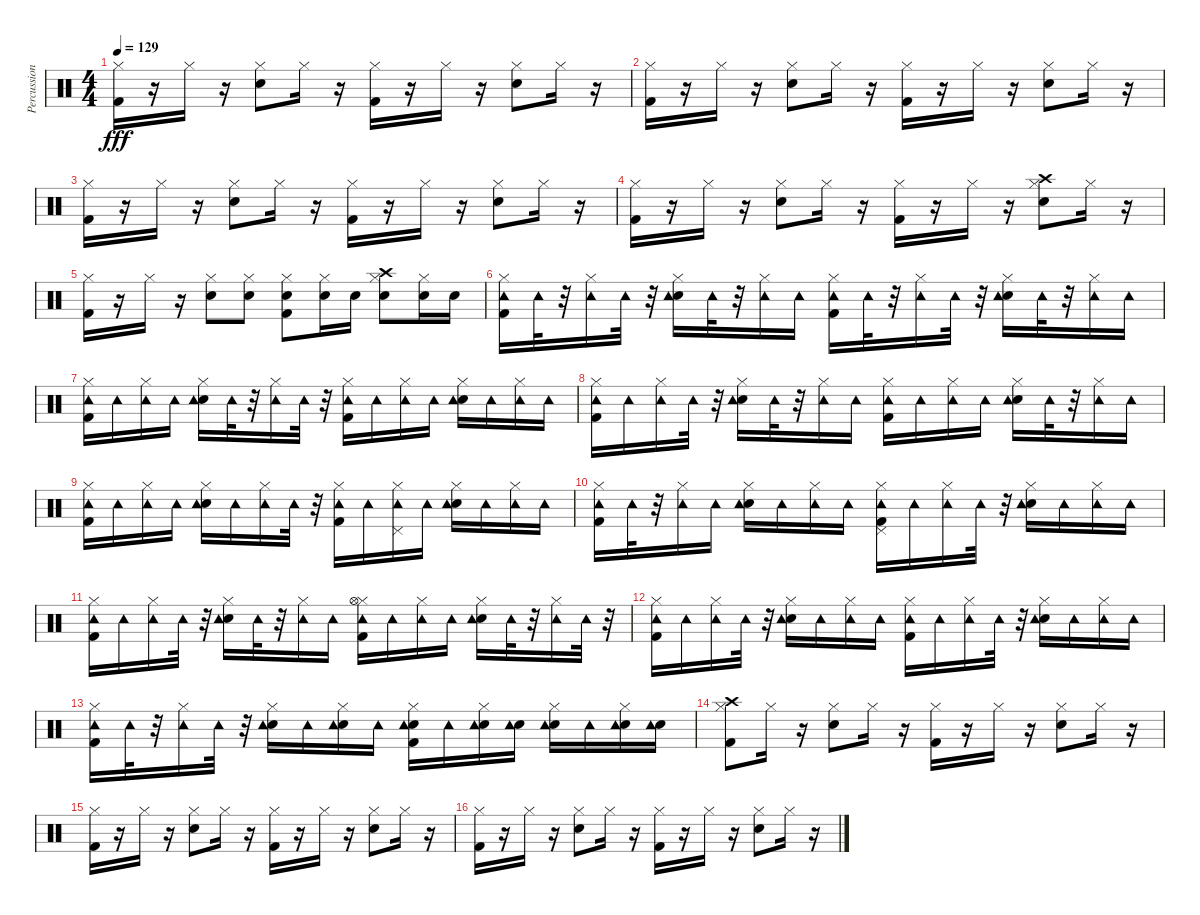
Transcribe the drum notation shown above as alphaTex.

\track ("Percussion" "Percussion") {instrument percussion}
\staff {score}
\articulation defaults
\ts (4 4)
\tempo 129
\clef neutral
\ks c
("Kick (hit) 2" "Hi-Hat (closed)").16{dy fff} r.16 "Hi-Hat (closed)".16 r.16 ("Snare (hit) 2" "Hi-Hat (closed)").8 "Hi-Hat (closed)".16 r.16 ("Kick (hit) 2" "Hi-Hat (closed)").16 r.16 "Hi-Hat (closed)".16 r.16 ("Snare (hit) 2" "Hi-Hat (closed)").8 "Hi-Hat (closed)".16 r.16 |
("Kick (hit) 2" "Hi-Hat (closed)").16 r.16 "Hi-Hat (closed)".16 r.16 ("Snare (hit) 2" "Hi-Hat (closed)").8 "Hi-Hat (closed)".16 r.16 ("Kick (hit) 2" "Hi-Hat (closed)").16 r.16 "Hi-Hat (closed)".16 r.16 ("Snare (hit) 2" "Hi-Hat (closed)").8 "Hi-Hat (closed)".16 r.16 |
("Kick (hit) 2" "Hi-Hat (closed)").16 r.16 "Hi-Hat (closed)".16 r.16 ("Snare (hit) 2" "Hi-Hat (closed)").8 "Hi-Hat (closed)".16 r.16 ("Kick (hit) 2" "Hi-Hat (closed)").16 r.16 "Hi-Hat (closed)".16 r.16 ("Snare (hit) 2" "Hi-Hat (closed)").8 "Hi-Hat (closed)".16 r.16 |
("Kick (hit) 2" "Hi-Hat (closed)").16 r.16 "Hi-Hat (closed)".16 r.16 ("Snare (hit) 2" "Hi-Hat (closed)").8 "Hi-Hat (closed)".16 r.16 ("Kick (hit) 2" "Hi-Hat (closed)").16 r.16 "Hi-Hat (closed)".16 r.16 ("Snare (hit) 2" "Hi-Hat (closed)" "Crash high (hit)").8 "Hi-Hat (closed)".16 r.16 |
("Kick (hit) 2" "Hi-Hat (closed)").16 r.16 "Hi-Hat (closed)".16 r.16 ("Snare (hit) 2" "Hi-Hat (closed)").8 ("Snare (hit) 2" "Hi-Hat (closed)").8 ("Kick (hit) 2" "Snare (hit) 2" "Hi-Hat (closed)").8 ("Snare (hit) 2" "Hi-Hat (closed)").16 "Snare (hit) 2".16 ("Snare (hit) 2" "Hi-Hat (closed)" "Crash high (hit)").8 ("Snare (hit) 2" "Hi-Hat (closed)").16 "Snare (hit) 2".16 |
("Kick (hit) 2" "Tambourine (hit)" "Hi-Hat (closed)").16 "Tambourine (hit)".32 r.32 ("Tambourine (hit)" "Hi-Hat (closed)").16 "Tambourine (hit)".32 r.32 ("Snare (hit) 2" "Tambourine (hit)" "Hi-Hat (closed)").16 "Tambourine (hit)".32 r.32 ("Tambourine (hit)" "Hi-Hat (closed)").16 "Tambourine (hit)".16 ("Kick (hit) 2" "Tambourine (hit)" "Hi-Hat (closed)").16 "Tambourine (hit)".32 r.32 ("Tambourine (hit)" "Hi-Hat (closed)").16 "Tambourine (hit)".32 r.32 ("Snare (hit) 2" "Tambourine (hit)" "Hi-Hat (closed)").16 "Tambourine (hit)".32 r.32 ("Tambourine (hit)" "Hi-Hat (closed)").16 "Tambourine (hit)".16 |
("Kick (hit) 2" "Tambourine (hit)" "Hi-Hat (closed)").16 "Tambourine (hit)".16 ("Tambourine (hit)" "Hi-Hat (closed)").16 "Tambourine (hit)".16 ("Snare (hit) 2" "Tambourine (hit)" "Hi-Hat (closed)").16 "Tambourine (hit)".32 r.32 ("Tambourine (hit)" "Hi-Hat (closed)").16 "Tambourine (hit)".32 r.32 ("Kick (hit) 2" "Tambourine (hit)" "Hi-Hat (closed)").16 "Tambourine (hit)".16 ("Tambourine (hit)" "Hi-Hat (closed)").16 "Tambourine (hit)".16 ("Snare (hit) 2" "Tambourine (hit)" "Hi-Hat (closed)").16 "Tambourine (hit)".16 ("Tambourine (hit)" "Hi-Hat (closed)").16 "Tambourine (hit)".16 |
("Kick (hit) 2" "Tambourine (hit)" "Hi-Hat (closed)").16 "Tambourine (hit)".16 ("Tambourine (hit)" "Hi-Hat (closed)").16 "Tambourine (hit)".32 r.32 ("Snare (hit) 2" "Tambourine (hit)" "Hi-Hat (closed)").16 "Tambourine (hit)".32 r.32 ("Tambourine (hit)" "Hi-Hat (closed)").16 "Tambourine (hit)".16 ("Kick (hit) 2" "Tambourine (hit)" "Hi-Hat (closed)").16 "Tambourine (hit)".16 ("Tambourine (hit)" "Hi-Hat (closed)").16 "Tambourine (hit)".16 ("Snare (hit) 2" "Tambourine (hit)" "Hi-Hat (closed)").16 "Tambourine (hit)".32 r.32 ("Tambourine (hit)" "Hi-Hat (closed)").16 "Tambourine (hit)".16 |
("Kick (hit) 2" "Tambourine (hit)" "Hi-Hat (closed)").16 "Tambourine (hit)".16 ("Tambourine (hit)" "Hi-Hat (closed)").16 "Tambourine (hit)".16 ("Snare (hit) 2" "Tambourine (hit)" "Hi-Hat (closed)").16 "Tambourine (hit)".16 ("Tambourine (hit)" "Hi-Hat (closed)").16 "Tambourine (hit)".32 r.32 ("Kick (hit) 2" "Tambourine (hit)" "Hi-Hat (closed)").16 "Tambourine (hit)".16 ("Tambourine (hit)" "Hi-Hat (closed)" "Pedal Hi-Hat (hit)").16 "Tambourine (hit)".16 ("Snare (hit) 2" "Tambourine (hit)" "Hi-Hat (closed)").16 "Tambourine (hit)".16 ("Tambourine (hit)" "Hi-Hat (closed)").16 "Tambourine (hit)".16 |
("Kick (hit) 2" "Tambourine (hit)" "Hi-Hat (closed)").16 "Tambourine (hit)".32 r.32 ("Tambourine (hit)" "Hi-Hat (closed)").16 "Tambourine (hit)".16 ("Snare (hit) 2" "Tambourine (hit)" "Hi-Hat (closed)").16 "Tambourine (hit)".16 ("Tambourine (hit)" "Hi-Hat (closed)").16 "Tambourine (hit)".16 ("Kick (hit) 2" "Tambourine (hit)" "Hi-Hat (closed)" "Pedal Hi-Hat (hit)").16 "Tambourine (hit)".16 ("Tambourine (hit)" "Hi-Hat (closed)").16 "Tambourine (hit)".32 r.32 ("Snare (hit) 2" "Tambourine (hit)" "Hi-Hat (closed)").16 "Tambourine (hit)".16 ("Tambourine (hit)" "Hi-Hat (closed)").16 "Tambourine (hit)".16 |
("Kick (hit) 2" "Tambourine (hit)" "Hi-Hat (closed)").16 "Tambourine (hit)".16 ("Tambourine (hit)" "Hi-Hat (closed)").16 "Tambourine (hit)".32 r.32 ("Snare (hit) 2" "Tambourine (hit)" "Hi-Hat (closed)").16 "Tambourine (hit)".32 r.32 ("Tambourine (hit)" "Hi-Hat (closed)").16 "Tambourine (hit)".16 ("Kick (hit) 2" "Tambourine (hit)" "Hi-Hat (closed)" "Hi-Hat (open)").16 "Tambourine (hit)".16 ("Tambourine (hit)" "Hi-Hat (closed)").16 "Tambourine (hit)".16 ("Snare (hit) 2" "Tambourine (hit)" "Hi-Hat (closed)").16 "Tambourine (hit)".32 r.32 ("Tambourine (hit)" "Hi-Hat (closed)").16 "Tambourine (hit)".32 r.32 |
("Kick (hit) 2" "Tambourine (hit)" "Hi-Hat (closed)").16 "Tambourine (hit)".16 ("Tambourine (hit)" "Hi-Hat (closed)").16 "Tambourine (hit)".32 r.32 ("Snare (hit) 2" "Tambourine (hit)" "Hi-Hat (closed)").16 "Tambourine (hit)".16 ("Tambourine (hit)" "Hi-Hat (closed)").16 "Tambourine (hit)".16 ("Kick (hit) 2" "Tambourine (hit)" "Hi-Hat (closed)").16 "Tambourine (hit)".16 ("Tambourine (hit)" "Hi-Hat (closed)").16 "Tambourine (hit)".32 r.32 ("Snare (hit) 2" "Tambourine (hit)" "Hi-Hat (closed)").16 "Tambourine (hit)".16 ("Tambourine (hit)" "Hi-Hat (closed)").16 "Tambourine (hit)".16 |
("Kick (hit) 2" "Tambourine (hit)" "Hi-Hat (closed)").16 "Tambourine (hit)".32 r.32 ("Tambourine (hit)" "Hi-Hat (closed)").16 "Tambourine (hit)".32 r.32 ("Snare (hit) 2" "Tambourine (hit)" "Hi-Hat (closed)").16 "Tambourine (hit)".16 ("Snare (hit) 2" "Tambourine (hit)" "Hi-Hat (closed)").16 "Tambourine (hit)".16 ("Kick (hit) 2" "Snare (hit) 2" "Tambourine (hit)" "Hi-Hat (closed)").16 "Tambourine (hit)".16 ("Snare (hit) 2" "Tambourine (hit)" "Hi-Hat (closed)").16 ("Snare (hit) 2" "Tambourine (hit)").16 ("Snare (hit) 2" "Tambourine (hit)" "Hi-Hat (closed)").16 "Tambourine (hit)".16 ("Snare (hit) 2" "Tambourine (hit)" "Hi-Hat (closed)").16 ("Snare (hit) 2" "Tambourine (hit)").16 |
("Kick (hit) 2" "Hi-Hat (closed)" "Crash high (hit)").8 "Hi-Hat (closed)".16 r.16 ("Snare (hit) 2" "Hi-Hat (closed)").8 "Hi-Hat (closed)".16 r.16 ("Kick (hit) 2" "Hi-Hat (closed)").16 r.16 "Hi-Hat (closed)".16 r.16 ("Snare (hit) 2" "Hi-Hat (closed)").8 "Hi-Hat (closed)".16 r.16 |
("Kick (hit) 2" "Hi-Hat (closed)").16 r.16 "Hi-Hat (closed)".16 r.16 ("Snare (hit) 2" "Hi-Hat (closed)").8 "Hi-Hat (closed)".16 r.16 ("Kick (hit) 2" "Hi-Hat (closed)").16 r.16 "Hi-Hat (closed)".16 r.16 ("Snare (hit) 2" "Hi-Hat (closed)").8 "Hi-Hat (closed)".16 r.16 |
("Kick (hit) 2" "Hi-Hat (closed)").16 r.16 "Hi-Hat (closed)".16 r.16 ("Snare (hit) 2" "Hi-Hat (closed)").8 "Hi-Hat (closed)".16 r.16 ("Kick (hit) 2" "Hi-Hat (closed)").16 r.16 "Hi-Hat (closed)".16 r.16 ("Snare (hit) 2" "Hi-Hat (closed)").8 "Hi-Hat (closed)".16 r.16
